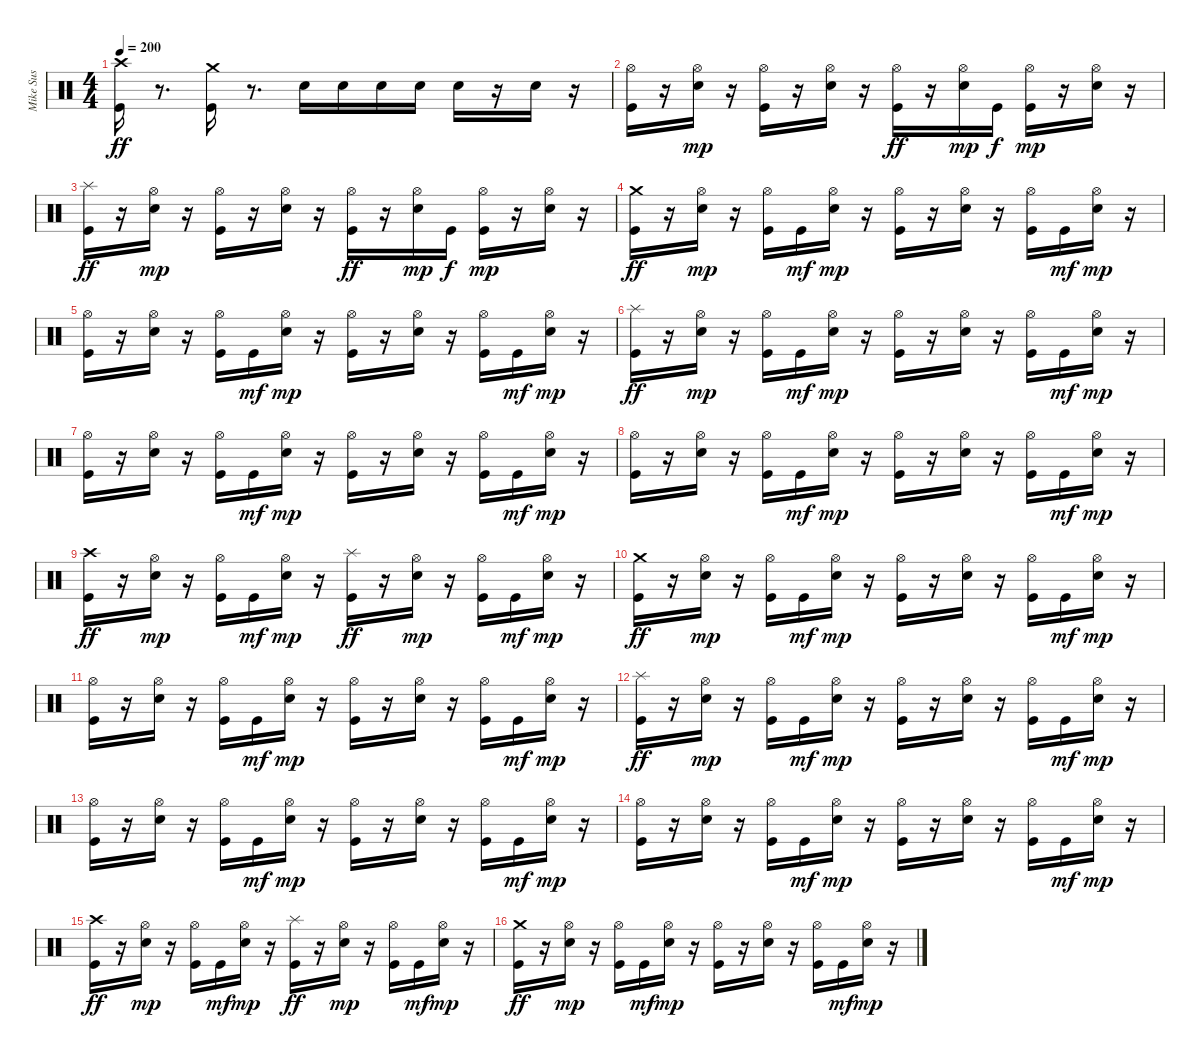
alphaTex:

\track ("Mike Sus" "Mike Sus") {instrument percussion}
\staff {score}
\articulation defaults
\ts (4 4)
\tempo 200
\clef neutral
\ks c
("Kick (hit)" "Crash high (hit)").16{dy ff} r.8{d} ("Kick (hit)" "Crash medium (hit)").16 r.8{d} "Snare (hit) 2".16 "Snare (hit) 2".16 "Snare (hit) 2".16 "Snare (hit) 2".16 "Snare (hit) 2".16 r.16 "Snare (hit) 2".16 r.16 |
("Hi-Hat (open)" "Kick (hit)").16 r.16 ("Snare (hit) 2" "Hi-Hat (open)").16{dy mp} r.16 ("Kick (hit)" "Hi-Hat (open)").16 r.16 ("Snare (hit) 2" "Hi-Hat (open)").16 r.16 ("Hi-Hat (open)" "Kick (hit)").16{dy ff} r.16 ("Snare (hit) 2" "Hi-Hat (open)").16{dy mp} "Kick (hit)".16{dy f} ("Hi-Hat (open)" "Kick (hit)").16{dy mp} r.16 ("Snare (hit) 2" "Hi-Hat (open)").16 r.16 |
("Kick (hit)" "Splash (hit)").16{dy ff} r.16 ("Snare (hit) 2" "Hi-Hat (open)").16{dy mp} r.16 ("Kick (hit)" "Hi-Hat (open)").16 r.16 ("Snare (hit) 2" "Hi-Hat (open)").16 r.16 ("Hi-Hat (open)" "Kick (hit)").16{dy ff} r.16 ("Snare (hit) 2" "Hi-Hat (open)").16{dy mp} "Kick (hit)".16{dy f} ("Hi-Hat (open)" "Kick (hit)").16{dy mp} r.16 ("Snare (hit) 2" "Hi-Hat (open)").16 r.16 |
("Kick (hit)" "Crash medium (hit)").16{dy ff} r.16 ("Snare (hit) 2" "Hi-Hat (open)").16{dy mp} r.16 ("Kick (hit)" "Hi-Hat (open)").16 "Kick (hit)".16{dy mf} ("Snare (hit) 2" "Hi-Hat (open)").16{dy mp} r.16 ("Kick (hit)" "Hi-Hat (open)").16 r.16 ("Snare (hit) 2" "Hi-Hat (open)").16 r.16 ("Kick (hit)" "Hi-Hat (open)").16 "Kick (hit)".16{dy mf} ("Snare (hit) 2" "Hi-Hat (open)").16{dy mp} r.16 |
("Kick (hit)" "Hi-Hat (open)").16 r.16 ("Snare (hit) 2" "Hi-Hat (open)").16 r.16 ("Kick (hit)" "Hi-Hat (open)").16 "Kick (hit)".16{dy mf} ("Snare (hit) 2" "Hi-Hat (open)").16{dy mp} r.16 ("Kick (hit)" "Hi-Hat (open)").16 r.16 ("Snare (hit) 2" "Hi-Hat (open)").16 r.16 ("Kick (hit)" "Hi-Hat (open)").16 "Kick (hit)".16{dy mf} ("Snare (hit) 2" "Hi-Hat (open)").16{dy mp} r.16 |
("Kick (hit)" "Splash (hit)").16{dy ff} r.16 ("Snare (hit) 2" "Hi-Hat (open)").16{dy mp} r.16 ("Kick (hit)" "Hi-Hat (open)").16 "Kick (hit)".16{dy mf} ("Snare (hit) 2" "Hi-Hat (open)").16{dy mp} r.16 ("Kick (hit)" "Hi-Hat (open)").16 r.16 ("Snare (hit) 2" "Hi-Hat (open)").16 r.16 ("Kick (hit)" "Hi-Hat (open)").16 "Kick (hit)".16{dy mf} ("Snare (hit) 2" "Hi-Hat (open)").16{dy mp} r.16 |
("Kick (hit)" "Hi-Hat (open)").16 r.16 ("Snare (hit) 2" "Hi-Hat (open)").16 r.16 ("Kick (hit)" "Hi-Hat (open)").16 "Kick (hit)".16{dy mf} ("Snare (hit) 2" "Hi-Hat (open)").16{dy mp} r.16 ("Kick (hit)" "Hi-Hat (open)").16 r.16 ("Snare (hit) 2" "Hi-Hat (open)").16 r.16 ("Kick (hit)" "Hi-Hat (open)").16 "Kick (hit)".16{dy mf} ("Snare (hit) 2" "Hi-Hat (open)").16{dy mp} r.16 |
("Kick (hit)" "Hi-Hat (open)").16 r.16 ("Snare (hit) 2" "Hi-Hat (open)").16 r.16 ("Kick (hit)" "Hi-Hat (open)").16 "Kick (hit)".16{dy mf} ("Snare (hit) 2" "Hi-Hat (open)").16{dy mp} r.16 ("Kick (hit)" "Hi-Hat (open)").16 r.16 ("Snare (hit) 2" "Hi-Hat (open)").16 r.16 ("Kick (hit)" "Hi-Hat (open)").16 "Kick (hit)".16{dy mf} ("Snare (hit) 2" "Hi-Hat (open)").16{dy mp} r.16 |
("Kick (hit)" "Crash high (hit)").16{dy ff} r.16 ("Snare (hit) 2" "Hi-Hat (open)").16{dy mp} r.16 ("Kick (hit)" "Hi-Hat (open)").16 "Kick (hit)".16{dy mf} ("Snare (hit) 2" "Hi-Hat (open)").16{dy mp} r.16 ("Kick (hit)" "Splash (hit)").16{dy ff} r.16 ("Snare (hit) 2" "Hi-Hat (open)").16{dy mp} r.16 ("Kick (hit)" "Hi-Hat (open)").16 "Kick (hit)".16{dy mf} ("Snare (hit) 2" "Hi-Hat (open)").16{dy mp} r.16 |
("Kick (hit)" "Crash medium (hit)").16{dy ff} r.16 ("Snare (hit) 2" "Hi-Hat (open)").16{dy mp} r.16 ("Kick (hit)" "Hi-Hat (open)").16 "Kick (hit)".16{dy mf} ("Snare (hit) 2" "Hi-Hat (open)").16{dy mp} r.16 ("Kick (hit)" "Hi-Hat (open)").16 r.16 ("Snare (hit) 2" "Hi-Hat (open)").16 r.16 ("Kick (hit)" "Hi-Hat (open)").16 "Kick (hit)".16{dy mf} ("Snare (hit) 2" "Hi-Hat (open)").16{dy mp} r.16 |
("Kick (hit)" "Hi-Hat (open)").16 r.16 ("Snare (hit) 2" "Hi-Hat (open)").16 r.16 ("Kick (hit)" "Hi-Hat (open)").16 "Kick (hit)".16{dy mf} ("Snare (hit) 2" "Hi-Hat (open)").16{dy mp} r.16 ("Kick (hit)" "Hi-Hat (open)").16 r.16 ("Snare (hit) 2" "Hi-Hat (open)").16 r.16 ("Kick (hit)" "Hi-Hat (open)").16 "Kick (hit)".16{dy mf} ("Snare (hit) 2" "Hi-Hat (open)").16{dy mp} r.16 |
("Kick (hit)" "Splash (hit)").16{dy ff} r.16 ("Snare (hit) 2" "Hi-Hat (open)").16{dy mp} r.16 ("Kick (hit)" "Hi-Hat (open)").16 "Kick (hit)".16{dy mf} ("Snare (hit) 2" "Hi-Hat (open)").16{dy mp} r.16 ("Kick (hit)" "Hi-Hat (open)").16 r.16 ("Snare (hit) 2" "Hi-Hat (open)").16 r.16 ("Kick (hit)" "Hi-Hat (open)").16 "Kick (hit)".16{dy mf} ("Snare (hit) 2" "Hi-Hat (open)").16{dy mp} r.16 |
("Kick (hit)" "Hi-Hat (open)").16 r.16 ("Snare (hit) 2" "Hi-Hat (open)").16 r.16 ("Kick (hit)" "Hi-Hat (open)").16 "Kick (hit)".16{dy mf} ("Snare (hit) 2" "Hi-Hat (open)").16{dy mp} r.16 ("Kick (hit)" "Hi-Hat (open)").16 r.16 ("Snare (hit) 2" "Hi-Hat (open)").16 r.16 ("Kick (hit)" "Hi-Hat (open)").16 "Kick (hit)".16{dy mf} ("Snare (hit) 2" "Hi-Hat (open)").16{dy mp} r.16 |
("Kick (hit)" "Hi-Hat (open)").16 r.16 ("Snare (hit) 2" "Hi-Hat (open)").16 r.16 ("Kick (hit)" "Hi-Hat (open)").16 "Kick (hit)".16{dy mf} ("Snare (hit) 2" "Hi-Hat (open)").16{dy mp} r.16 ("Kick (hit)" "Hi-Hat (open)").16 r.16 ("Snare (hit) 2" "Hi-Hat (open)").16 r.16 ("Kick (hit)" "Hi-Hat (open)").16 "Kick (hit)".16{dy mf} ("Snare (hit) 2" "Hi-Hat (open)").16{dy mp} r.16 |
("Kick (hit)" "Crash high (hit)").16{dy ff} r.16 ("Snare (hit) 2" "Hi-Hat (open)").16{dy mp} r.16 ("Kick (hit)" "Hi-Hat (open)").16 "Kick (hit)".16{dy mf} ("Snare (hit) 2" "Hi-Hat (open)").16{dy mp} r.16 ("Kick (hit)" "Splash (hit)").16{dy ff} r.16 ("Snare (hit) 2" "Hi-Hat (open)").16{dy mp} r.16 ("Kick (hit)" "Hi-Hat (open)").16 "Kick (hit)".16{dy mf} ("Snare (hit) 2" "Hi-Hat (open)").16{dy mp} r.16 |
("Kick (hit)" "Crash medium (hit)").16{dy ff} r.16 ("Snare (hit) 2" "Hi-Hat (open)").16{dy mp} r.16 ("Kick (hit)" "Hi-Hat (open)").16 "Kick (hit)".16{dy mf} ("Snare (hit) 2" "Hi-Hat (open)").16{dy mp} r.16 ("Kick (hit)" "Hi-Hat (open)").16 r.16 ("Snare (hit) 2" "Hi-Hat (open)").16 r.16 ("Kick (hit)" "Hi-Hat (open)").16 "Kick (hit)".16{dy mf} ("Snare (hit) 2" "Hi-Hat (open)").16{dy mp} r.16
